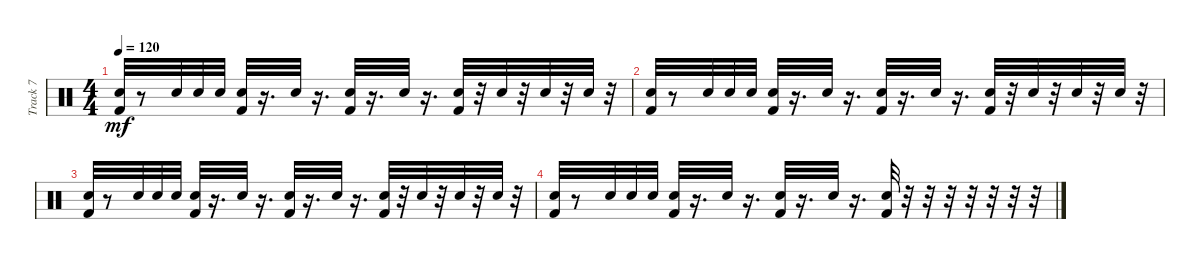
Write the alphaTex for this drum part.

\track ("Track 7" "Track 7") {instrument percussion}
\staff {score}
\articulation defaults
\ts (4 4)
\tempo 120
\clef neutral
\ks c
("Electric Snare (hit)" "Kick (hit) 2").32{dy mf} r.8 "Electric Snare (hit)".32 "Electric Snare (hit)".32 "Electric Snare (hit)".32 ("Electric Snare (hit)" "Kick (hit) 2").32 r.16{d} "Electric Snare (hit)".32 r.16{d} ("Electric Snare (hit)" "Kick (hit) 2").32 r.16{d} "Electric Snare (hit)".32 r.16{d} ("Electric Snare (hit)" "Kick (hit) 2").32 r.32 "Electric Snare (hit)".32 r.32 "Electric Snare (hit)".32 r.32 "Electric Snare (hit)".32 r.32 |
("Electric Snare (hit)" "Kick (hit) 2").32 r.8 "Electric Snare (hit)".32 "Electric Snare (hit)".32 "Electric Snare (hit)".32 ("Electric Snare (hit)" "Kick (hit) 2").32 r.16{d} "Electric Snare (hit)".32 r.16{d} ("Electric Snare (hit)" "Kick (hit) 2").32 r.16{d} "Electric Snare (hit)".32 r.16{d} ("Electric Snare (hit)" "Kick (hit) 2").32 r.32 "Electric Snare (hit)".32 r.32 "Electric Snare (hit)".32 r.32 "Electric Snare (hit)".32 r.32 |
("Electric Snare (hit)" "Kick (hit) 2").32 r.8 "Electric Snare (hit)".32 "Electric Snare (hit)".32 "Electric Snare (hit)".32 ("Electric Snare (hit)" "Kick (hit) 2").32 r.16{d} "Electric Snare (hit)".32 r.16{d} ("Electric Snare (hit)" "Kick (hit) 2").32 r.16{d} "Electric Snare (hit)".32 r.16{d} ("Electric Snare (hit)" "Kick (hit) 2").32 r.32 "Electric Snare (hit)".32 r.32 "Electric Snare (hit)".32 r.32 "Electric Snare (hit)".32 r.32 |
("Electric Snare (hit)" "Kick (hit) 2").32 r.8 "Electric Snare (hit)".32 "Electric Snare (hit)".32 "Electric Snare (hit)".32 ("Electric Snare (hit)" "Kick (hit) 2").32 r.16{d} "Electric Snare (hit)".32 r.16{d} ("Electric Snare (hit)" "Kick (hit) 2").32 r.16{d} "Electric Snare (hit)".32 r.16{d} ("Electric Snare (hit)" "Kick (hit) 2").32 r.32 r.32 r.32 r.32 r.32 r.32 r.32
